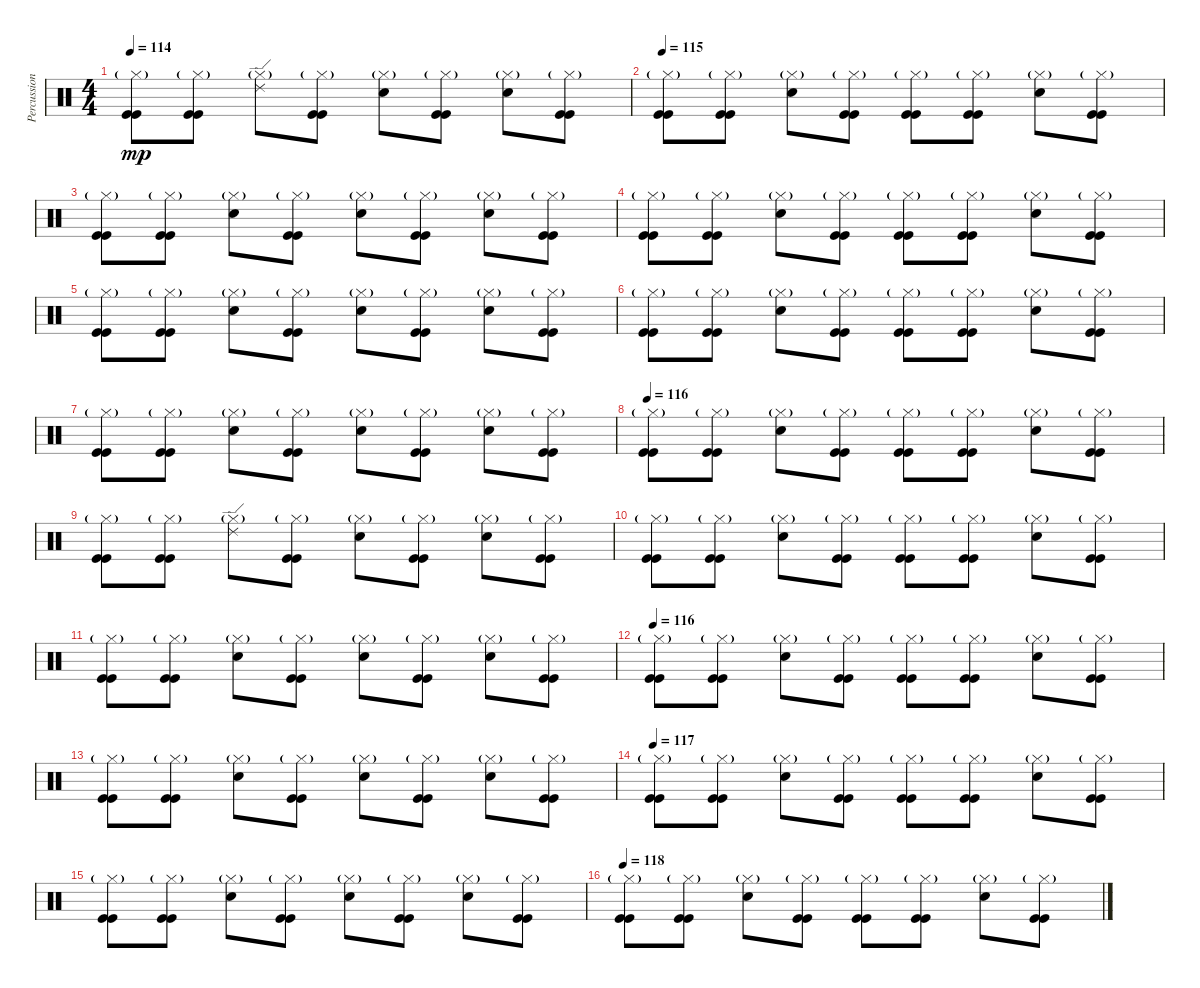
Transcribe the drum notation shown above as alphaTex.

\track ("Percussion" "Percussion") {instrument percussion}
\staff {score}
\articulation defaults
\ts (4 4)
\tempo 114
\clef neutral
\ks c
("Hi-Hat (closed)"{g} "Kick (hit)" "Kick (hit)").8{dy mp} ("Hi-Hat (closed)"{g} "Kick (hit)" "Kick (hit)").8 ("Hi-Hat (closed)"{g} "Ride (edge) 2").8 ("Hi-Hat (closed)"{g} "Kick (hit)" "Kick (hit)").8 ("Hi-Hat (closed)"{g} "Snare (hit) 2").8 ("Hi-Hat (closed)"{g} "Kick (hit)" "Kick (hit)").8 ("Hi-Hat (closed)"{g} "Snare (hit) 2").8 ("Hi-Hat (closed)"{g} "Kick (hit)" "Kick (hit)").8 |
\tempo 115
("Hi-Hat (closed)"{g} "Kick (hit)" "Kick (hit)").8 ("Hi-Hat (closed)"{g} "Kick (hit)" "Kick (hit)").8 ("Hi-Hat (closed)"{g} "Snare (hit) 2").8 ("Hi-Hat (closed)"{g} "Kick (hit)" "Kick (hit)").8 ("Hi-Hat (closed)"{g} "Kick (hit)" "Kick (hit)").8 ("Hi-Hat (closed)"{g} "Kick (hit)" "Kick (hit)").8 ("Hi-Hat (closed)"{g} "Snare (hit) 2").8 ("Hi-Hat (closed)"{g} "Kick (hit)" "Kick (hit)").8 |
("Hi-Hat (closed)"{g} "Kick (hit)" "Kick (hit)").8 ("Hi-Hat (closed)"{g} "Kick (hit)" "Kick (hit)").8 ("Hi-Hat (closed)"{g} "Snare (hit) 2").8 ("Hi-Hat (closed)"{g} "Kick (hit)" "Kick (hit)").8 ("Hi-Hat (closed)"{g} "Snare (hit) 2").8 ("Hi-Hat (closed)"{g} "Kick (hit)" "Kick (hit)").8 ("Hi-Hat (closed)"{g} "Snare (hit) 2").8 ("Hi-Hat (closed)"{g} "Kick (hit)" "Kick (hit)").8 |
("Hi-Hat (closed)"{g} "Kick (hit)" "Kick (hit)").8 ("Hi-Hat (closed)"{g} "Kick (hit)" "Kick (hit)").8 ("Hi-Hat (closed)"{g} "Snare (hit) 2").8 ("Hi-Hat (closed)"{g} "Kick (hit)" "Kick (hit)").8 ("Hi-Hat (closed)"{g} "Kick (hit)" "Kick (hit)").8 ("Hi-Hat (closed)"{g} "Kick (hit)" "Kick (hit)").8 ("Hi-Hat (closed)"{g} "Snare (hit) 2").8 ("Hi-Hat (closed)"{g} "Kick (hit)" "Kick (hit)").8 |
("Hi-Hat (closed)"{g} "Kick (hit)" "Kick (hit)").8 ("Hi-Hat (closed)"{g} "Kick (hit)" "Kick (hit)").8 ("Hi-Hat (closed)"{g} "Snare (hit) 2").8 ("Hi-Hat (closed)"{g} "Kick (hit)" "Kick (hit)").8 ("Hi-Hat (closed)"{g} "Snare (hit) 2").8 ("Hi-Hat (closed)"{g} "Kick (hit)" "Kick (hit)").8 ("Hi-Hat (closed)"{g} "Snare (hit) 2").8 ("Hi-Hat (closed)"{g} "Kick (hit)" "Kick (hit)").8 |
("Hi-Hat (closed)"{g} "Kick (hit)" "Kick (hit)").8 ("Hi-Hat (closed)"{g} "Kick (hit)" "Kick (hit)").8 ("Hi-Hat (closed)"{g} "Snare (hit) 2").8 ("Hi-Hat (closed)"{g} "Kick (hit)" "Kick (hit)").8 ("Hi-Hat (closed)"{g} "Kick (hit)" "Kick (hit)").8 ("Hi-Hat (closed)"{g} "Kick (hit)" "Kick (hit)").8 ("Hi-Hat (closed)"{g} "Snare (hit) 2").8 ("Hi-Hat (closed)"{g} "Kick (hit)" "Kick (hit)").8 |
("Hi-Hat (closed)"{g} "Kick (hit)" "Kick (hit)").8 ("Hi-Hat (closed)"{g} "Kick (hit)" "Kick (hit)").8 ("Hi-Hat (closed)"{g} "Snare (hit) 2").8 ("Hi-Hat (closed)"{g} "Kick (hit)" "Kick (hit)").8 ("Hi-Hat (closed)"{g} "Snare (hit) 2").8 ("Hi-Hat (closed)"{g} "Kick (hit)" "Kick (hit)").8 ("Hi-Hat (closed)"{g} "Snare (hit) 2").8 ("Hi-Hat (closed)"{g} "Kick (hit)" "Kick (hit)").8 |
\tempo 116
("Hi-Hat (closed)"{g} "Kick (hit)" "Kick (hit)").8 ("Hi-Hat (closed)"{g} "Kick (hit)" "Kick (hit)").8 ("Hi-Hat (closed)"{g} "Snare (hit) 2").8 ("Hi-Hat (closed)"{g} "Kick (hit)" "Kick (hit)").8 ("Hi-Hat (closed)"{g} "Kick (hit)" "Kick (hit)").8 ("Hi-Hat (closed)"{g} "Kick (hit)" "Kick (hit)").8 ("Hi-Hat (closed)"{g} "Snare (hit) 2").8 ("Hi-Hat (closed)"{g} "Kick (hit)" "Kick (hit)").8 |
("Hi-Hat (closed)"{g} "Kick (hit)" "Kick (hit)").8 ("Hi-Hat (closed)"{g} "Kick (hit)" "Kick (hit)").8 ("Hi-Hat (closed)"{g} "Ride (edge) 2").8 ("Hi-Hat (closed)"{g} "Kick (hit)" "Kick (hit)").8 ("Hi-Hat (closed)"{g} "Snare (hit) 2").8 ("Hi-Hat (closed)"{g} "Kick (hit)" "Kick (hit)").8 ("Hi-Hat (closed)"{g} "Snare (hit) 2").8 ("Hi-Hat (closed)"{g} "Kick (hit)" "Kick (hit)").8 |
("Hi-Hat (closed)"{g} "Kick (hit)" "Kick (hit)").8 ("Hi-Hat (closed)"{g} "Kick (hit)" "Kick (hit)").8 ("Hi-Hat (closed)"{g} "Snare (hit) 2").8 ("Hi-Hat (closed)"{g} "Kick (hit)" "Kick (hit)").8 ("Hi-Hat (closed)"{g} "Kick (hit)" "Kick (hit)").8 ("Hi-Hat (closed)"{g} "Kick (hit)" "Kick (hit)").8 ("Hi-Hat (closed)"{g} "Snare (hit) 2").8 ("Hi-Hat (closed)"{g} "Kick (hit)" "Kick (hit)").8 |
("Hi-Hat (closed)"{g} "Kick (hit)" "Kick (hit)").8 ("Hi-Hat (closed)"{g} "Kick (hit)" "Kick (hit)").8 ("Hi-Hat (closed)"{g} "Snare (hit) 2").8 ("Hi-Hat (closed)"{g} "Kick (hit)" "Kick (hit)").8 ("Hi-Hat (closed)"{g} "Snare (hit) 2").8 ("Hi-Hat (closed)"{g} "Kick (hit)" "Kick (hit)").8 ("Hi-Hat (closed)"{g} "Snare (hit) 2").8 ("Hi-Hat (closed)"{g} "Kick (hit)" "Kick (hit)").8 |
\tempo 116
("Hi-Hat (closed)"{g} "Kick (hit)" "Kick (hit)").8 ("Hi-Hat (closed)"{g} "Kick (hit)" "Kick (hit)").8 ("Hi-Hat (closed)"{g} "Snare (hit) 2").8 ("Hi-Hat (closed)"{g} "Kick (hit)" "Kick (hit)").8 ("Hi-Hat (closed)"{g} "Kick (hit)" "Kick (hit)").8 ("Hi-Hat (closed)"{g} "Kick (hit)" "Kick (hit)").8 ("Hi-Hat (closed)"{g} "Snare (hit) 2").8 ("Hi-Hat (closed)"{g} "Kick (hit)" "Kick (hit)").8 |
("Hi-Hat (closed)"{g} "Kick (hit)" "Kick (hit)").8 ("Hi-Hat (closed)"{g} "Kick (hit)" "Kick (hit)").8 ("Hi-Hat (closed)"{g} "Snare (hit) 2").8 ("Hi-Hat (closed)"{g} "Kick (hit)" "Kick (hit)").8 ("Hi-Hat (closed)"{g} "Snare (hit) 2").8 ("Hi-Hat (closed)"{g} "Kick (hit)" "Kick (hit)").8 ("Hi-Hat (closed)"{g} "Snare (hit) 2").8 ("Hi-Hat (closed)"{g} "Kick (hit)" "Kick (hit)").8 |
\tempo 117
("Hi-Hat (closed)"{g} "Kick (hit)" "Kick (hit)").8 ("Hi-Hat (closed)"{g} "Kick (hit)" "Kick (hit)").8 ("Hi-Hat (closed)"{g} "Snare (hit) 2").8 ("Hi-Hat (closed)"{g} "Kick (hit)" "Kick (hit)").8 ("Hi-Hat (closed)"{g} "Kick (hit)" "Kick (hit)").8 ("Hi-Hat (closed)"{g} "Kick (hit)" "Kick (hit)").8 ("Hi-Hat (closed)"{g} "Snare (hit) 2").8 ("Hi-Hat (closed)"{g} "Kick (hit)" "Kick (hit)").8 |
("Hi-Hat (closed)"{g} "Kick (hit)" "Kick (hit)").8 ("Hi-Hat (closed)"{g} "Kick (hit)" "Kick (hit)").8 ("Hi-Hat (closed)"{g} "Snare (hit) 2").8 ("Hi-Hat (closed)"{g} "Kick (hit)" "Kick (hit)").8 ("Hi-Hat (closed)"{g} "Snare (hit) 2").8 ("Hi-Hat (closed)"{g} "Kick (hit)" "Kick (hit)").8 ("Hi-Hat (closed)"{g} "Snare (hit) 2").8 ("Hi-Hat (closed)"{g} "Kick (hit)" "Kick (hit)").8 |
\tempo 118
("Hi-Hat (closed)"{g} "Kick (hit)" "Kick (hit)").8 ("Hi-Hat (closed)"{g} "Kick (hit)" "Kick (hit)").8 ("Hi-Hat (closed)"{g} "Snare (hit) 2").8 ("Hi-Hat (closed)"{g} "Kick (hit)" "Kick (hit)").8 ("Hi-Hat (closed)"{g} "Kick (hit)" "Kick (hit)").8 ("Hi-Hat (closed)"{g} "Kick (hit)" "Kick (hit)").8 ("Hi-Hat (closed)"{g} "Snare (hit) 2").8 ("Hi-Hat (closed)"{g} "Kick (hit)" "Kick (hit)").8
